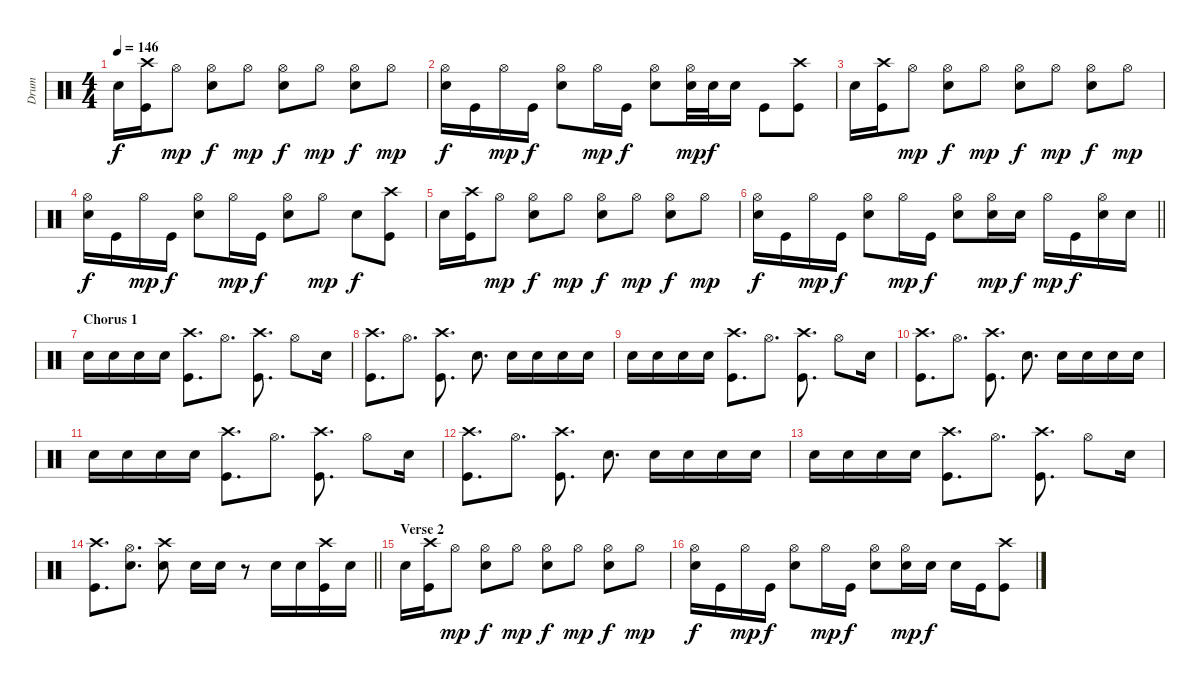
\track ("Drum" "Drum") {instrument percussion}
\staff {score}
\articulation defaults
\ts (4 4)
\tempo 146
\clef neutral
\ks c "Snare (hit) 2".16{dy f}
("Crash high (hit)" "Kick (hit)").16 "Hi-Hat (open)".8{dy mp} ("Hi-Hat (open)" "Snare (hit) 2").8{dy f} "Hi-Hat (open)".8{dy mp} ("Hi-Hat (open)" "Snare (hit) 2").8{dy f} "Hi-Hat (open)".8{dy mp} ("Hi-Hat (open)" "Snare (hit) 2").8{dy f} "Hi-Hat (open)".8{dy mp} |
("Hi-Hat (open)" "Snare (hit) 2").16{dy f} "Kick (hit)".16 "Hi-Hat (open)".16{dy mp} "Kick (hit)".16{dy f} ("Hi-Hat (open)" "Snare (hit) 2").8 "Hi-Hat (open)".16{dy mp} "Kick (hit)".16{dy f} ("Hi-Hat (open)" "Snare (hit) 2").8 ("Hi-Hat (open)" "Snare (hit) 2").32{dy mp} "Snare (hit) 2".32{dy f} "Snare (hit) 2".16 "Kick (hit)".8 ("Crash high (hit)" "Kick (hit)").8 |
"Snare (hit) 2".16 ("Crash high (hit)" "Kick (hit)").16 "Hi-Hat (open)".8{dy mp} ("Hi-Hat (open)" "Snare (hit) 2").8{dy f} "Hi-Hat (open)".8{dy mp} ("Hi-Hat (open)" "Snare (hit) 2").8{dy f} "Hi-Hat (open)".8{dy mp} ("Hi-Hat (open)" "Snare (hit) 2").8{dy f} "Hi-Hat (open)".8{dy mp} |
("Hi-Hat (open)" "Snare (hit) 2").16{dy f} "Kick (hit)".16 "Hi-Hat (open)".16{dy mp} "Kick (hit)".16{dy f} ("Hi-Hat (open)" "Snare (hit) 2").8 "Hi-Hat (open)".16{dy mp} "Kick (hit)".16{dy f} ("Hi-Hat (open)" "Snare (hit) 2").8 "Hi-Hat (open)".8{dy mp} "Snare (hit) 2".8{dy f} ("Crash high (hit)" "Kick (hit)").8 |
"Snare (hit) 2".16 ("Crash high (hit)" "Kick (hit)").16 "Hi-Hat (open)".8{dy mp} ("Hi-Hat (open)" "Snare (hit) 2").8{dy f} "Hi-Hat (open)".8{dy mp} ("Hi-Hat (open)" "Snare (hit) 2").8{dy f} "Hi-Hat (open)".8{dy mp} ("Hi-Hat (open)" "Snare (hit) 2").8{dy f} "Hi-Hat (open)".8{dy mp} |
\barLineRight lightlight
("Hi-Hat (open)" "Snare (hit) 2").16{dy f} "Kick (hit)".16 "Hi-Hat (open)".16{dy mp} "Kick (hit)".16{dy f} ("Hi-Hat (open)" "Snare (hit) 2").8 "Hi-Hat (open)".16{dy mp} "Kick (hit)".16{dy f} ("Hi-Hat (open)" "Snare (hit) 2").8 ("Hi-Hat (open)" "Snare (hit) 2").16{dy mp} "Snare (hit) 2".16{dy f} "Hi-Hat (open)".16{dy mp} "Kick (hit)".16{dy f} ("Hi-Hat (open)" "Snare (hit) 2").16 "Snare (hit) 2".16 |
\section ("" "Chorus 1")
"Snare (hit) 2".16 "Snare (hit) 2".16 "Snare (hit) 2".16 "Snare (hit) 2".16 ("Crash high (hit)" "Kick (hit)").8{d} "Hi-Hat (open)".8{d} ("Crash high (hit)" "Kick (hit)").8{d} "Hi-Hat (open)".8 "Snare (hit) 2".16 |
("Crash high (hit)" "Kick (hit)").8{d} "Hi-Hat (open)".8{d} ("Crash high (hit)" "Kick (hit)").8{d} "Snare (hit) 2".8{d} "Snare (hit) 2".16 "Snare (hit) 2".16 "Snare (hit) 2".16 "Snare (hit) 2".16 |
"Snare (hit) 2".16 "Snare (hit) 2".16 "Snare (hit) 2".16 "Snare (hit) 2".16 ("Crash high (hit)" "Kick (hit)").8{d} "Hi-Hat (open)".8{d} ("Crash high (hit)" "Kick (hit)").8{d} "Hi-Hat (open)".8 "Snare (hit) 2".16 |
("Crash high (hit)" "Kick (hit)").8{d} "Hi-Hat (open)".8{d} ("Crash high (hit)" "Kick (hit)").8{d} "Snare (hit) 2".8{d} "Snare (hit) 2".16 "Snare (hit) 2".16 "Snare (hit) 2".16 "Snare (hit) 2".16 |
"Snare (hit) 2".16 "Snare (hit) 2".16 "Snare (hit) 2".16 "Snare (hit) 2".16 ("Crash high (hit)" "Kick (hit)").8{d} "Hi-Hat (open)".8{d} ("Crash high (hit)" "Kick (hit)").8{d} "Hi-Hat (open)".8 "Snare (hit) 2".16 |
("Crash high (hit)" "Kick (hit)").8{d} "Hi-Hat (open)".8{d} ("Crash high (hit)" "Kick (hit)").8{d} "Snare (hit) 2".8{d} "Snare (hit) 2".16 "Snare (hit) 2".16 "Snare (hit) 2".16 "Snare (hit) 2".16 |
"Snare (hit) 2".16 "Snare (hit) 2".16 "Snare (hit) 2".16 "Snare (hit) 2".16 ("Crash high (hit)" "Kick (hit)").8{d} "Hi-Hat (open)".8{d} ("Crash high (hit)" "Kick (hit)").8{d} "Hi-Hat (open)".8 "Snare (hit) 2".16 |
\barLineRight lightlight
("Crash high (hit)" "Kick (hit)").8{d} ("Hi-Hat (open)" "Snare (hit) 2").8{d} ("Crash high (hit)" "Snare (hit) 2").8 "Snare (hit) 2".16 "Snare (hit) 2".16 r.8 "Snare (hit) 2".16 "Snare (hit) 2".16 ("Crash high (hit)" "Kick (hit)").16 "Snare (hit) 2".16 |
\section ("" "Verse 2")
"Snare (hit) 2".16 ("Crash high (hit)" "Kick (hit)").16 "Hi-Hat (open)".8{dy mp} ("Hi-Hat (open)" "Snare (hit) 2").8{dy f} "Hi-Hat (open)".8{dy mp} ("Hi-Hat (open)" "Snare (hit) 2").8{dy f} "Hi-Hat (open)".8{dy mp} ("Hi-Hat (open)" "Snare (hit) 2").8{dy f} "Hi-Hat (open)".8{dy mp} |
("Hi-Hat (open)" "Snare (hit) 2").16{dy f} "Kick (hit)".16 "Hi-Hat (open)".16{dy mp} "Kick (hit)".16{dy f} ("Hi-Hat (open)" "Snare (hit) 2").8 "Hi-Hat (open)".16{dy mp} "Kick (hit)".16{dy f} ("Hi-Hat (open)" "Snare (hit) 2").8 ("Hi-Hat (open)" "Snare (hit) 2").16{dy mp} "Snare (hit) 2".16{dy f} "Snare (hit) 2".16 "Kick (hit)".16 ("Crash high (hit)" "Kick (hit)").8
